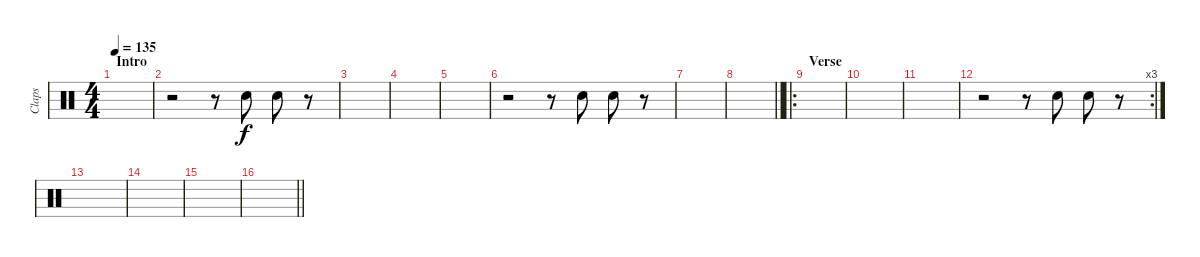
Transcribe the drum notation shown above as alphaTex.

\track ("Claps" "Claps") {instrument percussion}
\staff {score}
\articulation defaults
\ts (4 4)
\section ("" "Intro")
\tempo 135
\clef neutral
\ks c
|
r.2 r.8 "Hand Clap (hit)".8 "Hand Clap (hit)".8 r.8 |
|
|
|
r.2 r.8 "Hand Clap (hit)".8 "Hand Clap (hit)".8 r.8 |
|
\barLineRight lightlight
|
\ro
\section ("" "Verse")
|
|
|
\rc 3
r.2 r.8 "Hand Clap (hit)".8 "Hand Clap (hit)".8 r.8 |
|
|
|
\barLineRight lightlight
